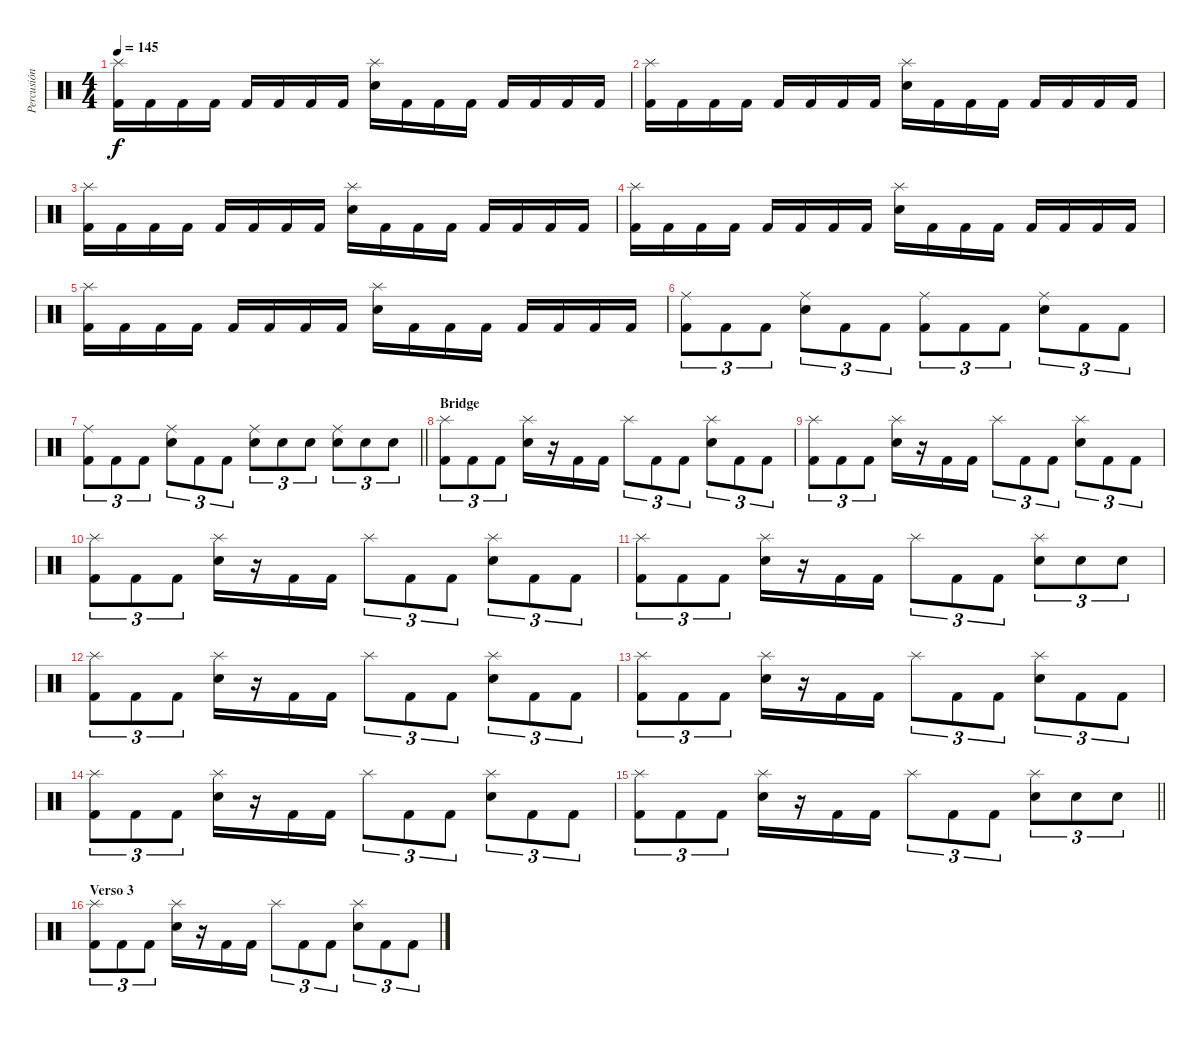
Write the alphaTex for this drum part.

\track ("Percusión" "Percusión") {instrument percussion}
\staff {score}
\articulation defaults
\ts (4 4)
\tempo 145
\clef neutral
\ks c
("Splash (hit)" "Kick (hit) 2").16{dy f} "Kick (hit) 2".16 "Kick (hit) 2".16 "Kick (hit) 2".16 "Kick (hit) 2".16 "Kick (hit) 2".16 "Kick (hit) 2".16 "Kick (hit) 2".16 ("Splash (hit)" "Snare (hit) 2").16 "Kick (hit) 2".16 "Kick (hit) 2".16 "Kick (hit) 2".16 "Kick (hit) 2".16 "Kick (hit) 2".16 "Kick (hit) 2".16 "Kick (hit) 2".16 |
("Splash (hit)" "Kick (hit) 2").16 "Kick (hit) 2".16 "Kick (hit) 2".16 "Kick (hit) 2".16 "Kick (hit) 2".16 "Kick (hit) 2".16 "Kick (hit) 2".16 "Kick (hit) 2".16 ("Splash (hit)" "Snare (hit) 2").16 "Kick (hit) 2".16 "Kick (hit) 2".16 "Kick (hit) 2".16 "Kick (hit) 2".16 "Kick (hit) 2".16 "Kick (hit) 2".16 "Kick (hit) 2".16 |
("Splash (hit)" "Kick (hit) 2").16 "Kick (hit) 2".16 "Kick (hit) 2".16 "Kick (hit) 2".16 "Kick (hit) 2".16 "Kick (hit) 2".16 "Kick (hit) 2".16 "Kick (hit) 2".16 ("Splash (hit)" "Snare (hit) 2").16 "Kick (hit) 2".16 "Kick (hit) 2".16 "Kick (hit) 2".16 "Kick (hit) 2".16 "Kick (hit) 2".16 "Kick (hit) 2".16 "Kick (hit) 2".16 |
("Splash (hit)" "Kick (hit) 2").16 "Kick (hit) 2".16 "Kick (hit) 2".16 "Kick (hit) 2".16 "Kick (hit) 2".16 "Kick (hit) 2".16 "Kick (hit) 2".16 "Kick (hit) 2".16 ("Splash (hit)" "Snare (hit) 2").16 "Kick (hit) 2".16 "Kick (hit) 2".16 "Kick (hit) 2".16 "Kick (hit) 2".16 "Kick (hit) 2".16 "Kick (hit) 2".16 "Kick (hit) 2".16 |
("Splash (hit)" "Kick (hit) 2").16 "Kick (hit) 2".16 "Kick (hit) 2".16 "Kick (hit) 2".16 "Kick (hit) 2".16 "Kick (hit) 2".16 "Kick (hit) 2".16 "Kick (hit) 2".16 ("Splash (hit)" "Snare (hit) 2").16 "Kick (hit) 2".16 "Kick (hit) 2".16 "Kick (hit) 2".16 "Kick (hit) 2".16 "Kick (hit) 2".16 "Kick (hit) 2".16 "Kick (hit) 2".16 |
("Ride (middle)" "Kick (hit) 2").8{tu (3 2)} "Kick (hit) 2".8{tu (3 2)} "Kick (hit) 2".8{tu (3 2)} ("Ride (middle)" "Snare (hit) 2").8{tu (3 2)} "Kick (hit) 2".8{tu (3 2)} "Kick (hit) 2".8{tu (3 2)} ("Ride (middle)" "Kick (hit) 2").8{tu (3 2)} "Kick (hit) 2".8{tu (3 2)} "Kick (hit) 2".8{tu (3 2)} ("Ride (middle)" "Snare (hit) 2").8{tu (3 2)} "Kick (hit) 2".8{tu (3 2)} "Kick (hit) 2".8{tu (3 2)} |
\barLineRight lightlight
("Ride (middle)" "Kick (hit) 2").8{tu (3 2)} "Kick (hit) 2".8{tu (3 2)} "Kick (hit) 2".8{tu (3 2)} ("Ride (middle)" "Electric Snare (hit)").8{tu (3 2)} "Kick (hit) 2".8{tu (3 2)} "Kick (hit) 2".8{tu (3 2)} ("Ride (middle)" "Electric Snare (hit)").8{tu (3 2)} "Electric Snare (hit)".8{tu (3 2)} "Electric Snare (hit)".8{tu (3 2)} ("Ride (middle)" "Electric Snare (hit)").8{tu (3 2)} "Electric Snare (hit)".8{tu (3 2)} "Electric Snare (hit)".8{tu (3 2)} |
\section ("" "Bridge")
("Splash (hit)" "Kick (hit) 2").8{tu (3 2)} "Kick (hit) 2".8{tu (3 2)} "Kick (hit) 2".8{tu (3 2)} ("Splash (hit)" "Electric Snare (hit)").16 r.16 "Kick (hit) 2".16 "Kick (hit) 2".16 "Splash (hit)".8{tu (3 2)} "Kick (hit) 2".8{tu (3 2)} "Kick (hit) 2".8{tu (3 2)} ("Splash (hit)" "Electric Snare (hit)").8{tu (3 2)} "Kick (hit) 2".8{tu (3 2)} "Kick (hit) 2".8{tu (3 2)} |
("Splash (hit)" "Kick (hit) 2").8{tu (3 2)} "Kick (hit) 2".8{tu (3 2)} "Kick (hit) 2".8{tu (3 2)} ("Splash (hit)" "Electric Snare (hit)").16 r.16 "Kick (hit) 2".16 "Kick (hit) 2".16 "Splash (hit)".8{tu (3 2)} "Kick (hit) 2".8{tu (3 2)} "Kick (hit) 2".8{tu (3 2)} ("Splash (hit)" "Electric Snare (hit)").8{tu (3 2)} "Kick (hit) 2".8{tu (3 2)} "Kick (hit) 2".8{tu (3 2)} |
("Splash (hit)" "Kick (hit) 2").8{tu (3 2)} "Kick (hit) 2".8{tu (3 2)} "Kick (hit) 2".8{tu (3 2)} ("Splash (hit)" "Electric Snare (hit)").16 r.16 "Kick (hit) 2".16 "Kick (hit) 2".16 "Splash (hit)".8{tu (3 2)} "Kick (hit) 2".8{tu (3 2)} "Kick (hit) 2".8{tu (3 2)} ("Splash (hit)" "Electric Snare (hit)").8{tu (3 2)} "Kick (hit) 2".8{tu (3 2)} "Kick (hit) 2".8{tu (3 2)} |
("Splash (hit)" "Kick (hit) 2").8{tu (3 2)} "Kick (hit) 2".8{tu (3 2)} "Kick (hit) 2".8{tu (3 2)} ("Splash (hit)" "Electric Snare (hit)").16 r.16 "Kick (hit) 2".16 "Kick (hit) 2".16 "Splash (hit)".8{tu (3 2)} "Kick (hit) 2".8{tu (3 2)} "Kick (hit) 2".8{tu (3 2)} ("Splash (hit)" "Electric Snare (hit)").8{tu (3 2)} "Electric Snare (hit)".8{tu (3 2)} "Electric Snare (hit)".8{tu (3 2)} |
("Splash (hit)" "Kick (hit) 2").8{tu (3 2)} "Kick (hit) 2".8{tu (3 2)} "Kick (hit) 2".8{tu (3 2)} ("Splash (hit)" "Electric Snare (hit)").16 r.16 "Kick (hit) 2".16 "Kick (hit) 2".16 "Splash (hit)".8{tu (3 2)} "Kick (hit) 2".8{tu (3 2)} "Kick (hit) 2".8{tu (3 2)} ("Splash (hit)" "Electric Snare (hit)").8{tu (3 2)} "Kick (hit) 2".8{tu (3 2)} "Kick (hit) 2".8{tu (3 2)} |
("Splash (hit)" "Kick (hit) 2").8{tu (3 2)} "Kick (hit) 2".8{tu (3 2)} "Kick (hit) 2".8{tu (3 2)} ("Splash (hit)" "Electric Snare (hit)").16 r.16 "Kick (hit) 2".16 "Kick (hit) 2".16 "Splash (hit)".8{tu (3 2)} "Kick (hit) 2".8{tu (3 2)} "Kick (hit) 2".8{tu (3 2)} ("Splash (hit)" "Electric Snare (hit)").8{tu (3 2)} "Kick (hit) 2".8{tu (3 2)} "Kick (hit) 2".8{tu (3 2)} |
("Splash (hit)" "Kick (hit) 2").8{tu (3 2)} "Kick (hit) 2".8{tu (3 2)} "Kick (hit) 2".8{tu (3 2)} ("Splash (hit)" "Electric Snare (hit)").16 r.16 "Kick (hit) 2".16 "Kick (hit) 2".16 "Splash (hit)".8{tu (3 2)} "Kick (hit) 2".8{tu (3 2)} "Kick (hit) 2".8{tu (3 2)} ("Splash (hit)" "Electric Snare (hit)").8{tu (3 2)} "Kick (hit) 2".8{tu (3 2)} "Kick (hit) 2".8{tu (3 2)} |
\barLineRight lightlight
("Splash (hit)" "Kick (hit) 2").8{tu (3 2)} "Kick (hit) 2".8{tu (3 2)} "Kick (hit) 2".8{tu (3 2)} ("Splash (hit)" "Electric Snare (hit)").16 r.16 "Kick (hit) 2".16 "Kick (hit) 2".16 "Splash (hit)".8{tu (3 2)} "Kick (hit) 2".8{tu (3 2)} "Kick (hit) 2".8{tu (3 2)} ("Splash (hit)" "Electric Snare (hit)").8{tu (3 2)} "Electric Snare (hit)".8{tu (3 2)} "Electric Snare (hit)".8{tu (3 2)} |
\section ("" "Verso 3")
("Splash (hit)" "Kick (hit) 2").8{tu (3 2)} "Kick (hit) 2".8{tu (3 2)} "Kick (hit) 2".8{tu (3 2)} ("Splash (hit)" "Electric Snare (hit)").16 r.16 "Kick (hit) 2".16 "Kick (hit) 2".16 "Splash (hit)".8{tu (3 2)} "Kick (hit) 2".8{tu (3 2)} "Kick (hit) 2".8{tu (3 2)} ("Splash (hit)" "Electric Snare (hit)").8{tu (3 2)} "Kick (hit) 2".8{tu (3 2)} "Kick (hit) 2".8{tu (3 2)}
